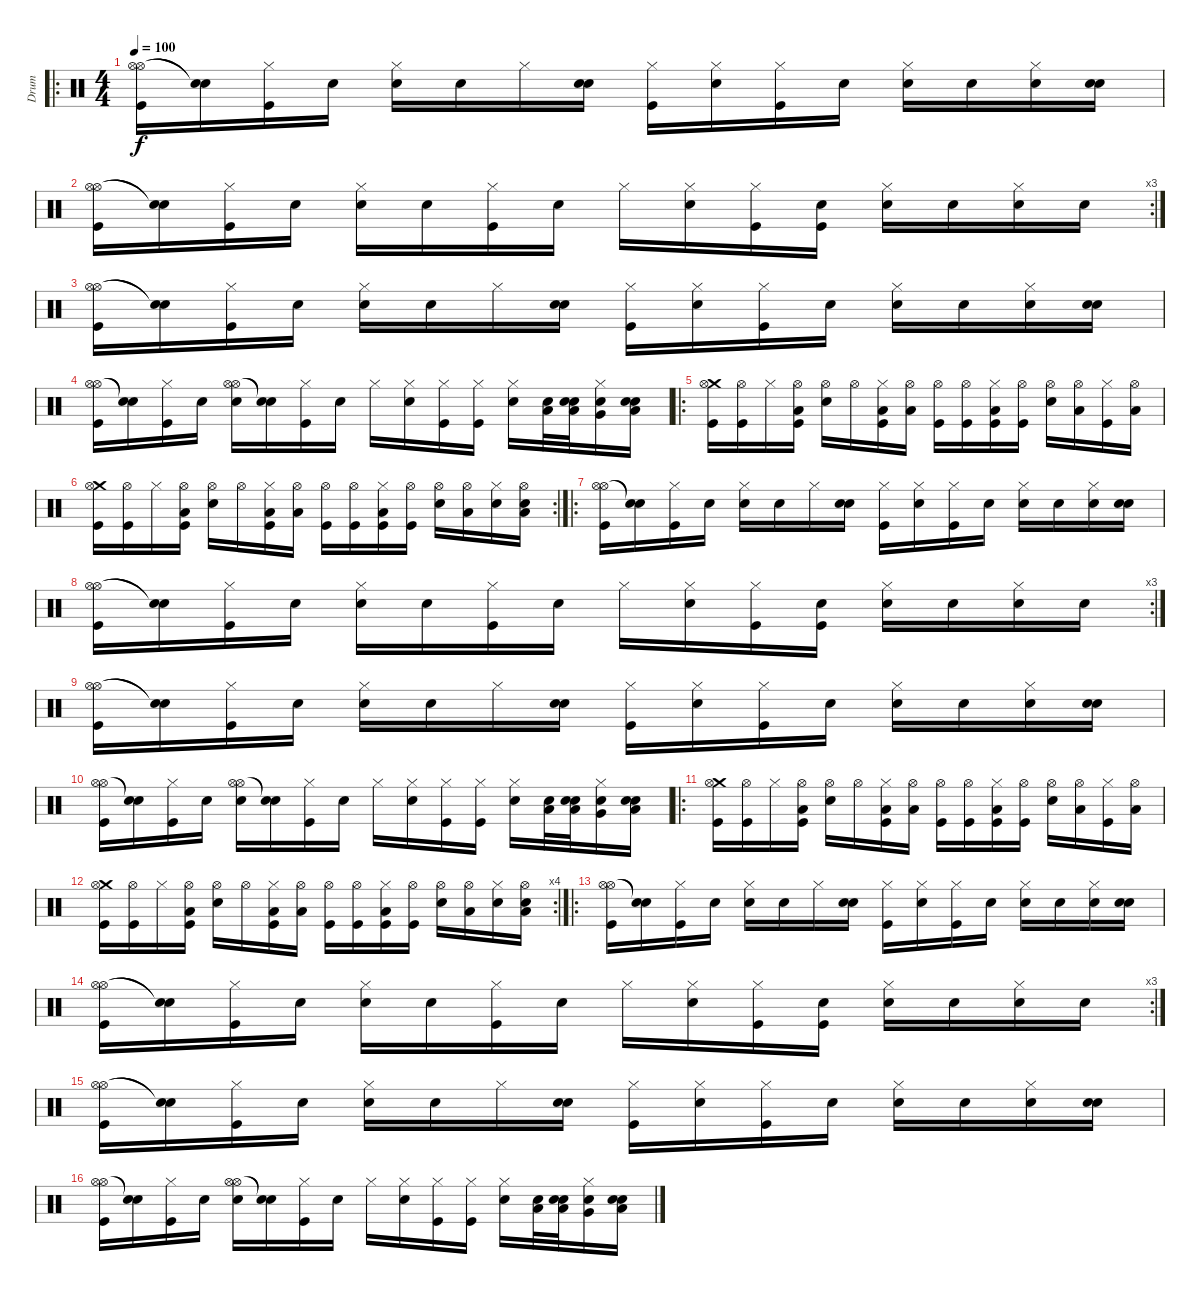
\track ("Drum" "Drum") {instrument percussion}
\staff {score}
\articulation defaults
\ro
\ts (4 4)
\tempo 100
\clef neutral
\ks c
("Hi-Hat (open)" "Hi-Hat (open)" "Kick (hit)").16{dy f} ("Snare (hit)"{t} "Snare (hit)"{t}).16 ("Hi-Hat (closed)" "Kick (hit)").16 "Snare (hit)".16 ("Hi-Hat (closed)" "Electric Snare (hit)").16 "Snare (hit)".16 "Hi-Hat (closed)".16 ("Snare (hit)" "Electric Snare (hit)").16 ("Hi-Hat (closed)" "Kick (hit)").16 ("Hi-Hat (closed)" "Electric Snare (hit)").16 ("Hi-Hat (closed)" "Kick (hit)").16 "Snare (hit)".16 ("Hi-Hat (closed)" "Electric Snare (hit)").16 "Snare (hit)".16 ("Hi-Hat (closed)" "Electric Snare (hit)").16 ("Snare (hit)" "Electric Snare (hit)").16 |
\rc 3
("Hi-Hat (open)" "Hi-Hat (open)" "Kick (hit)").16 ("Snare (hit)"{t} "Snare (hit)"{t}).16 ("Hi-Hat (closed)" "Kick (hit)").16 "Snare (hit)".16 ("Hi-Hat (closed)" "Electric Snare (hit)").16 "Snare (hit)".16 ("Hi-Hat (closed)" "Kick (hit)").16 "Snare (hit)".16 "Hi-Hat (closed)".16 ("Hi-Hat (closed)" "Electric Snare (hit)").16 ("Hi-Hat (closed)" "Kick (hit)").16 ("Snare (hit)" "Kick (hit)").16 ("Hi-Hat (closed)" "Electric Snare (hit)").16 "Snare (hit)".16 ("Hi-Hat (closed)" "Electric Snare (hit)").16 "Snare (hit)".16 |
("Hi-Hat (open)" "Hi-Hat (open)" "Kick (hit)").16 ("Snare (hit)"{t} "Snare (hit)"{t}).16 ("Hi-Hat (closed)" "Kick (hit)").16 "Snare (hit)".16 ("Hi-Hat (closed)" "Electric Snare (hit)").16 "Snare (hit)".16 "Hi-Hat (closed)".16 ("Snare (hit)" "Electric Snare (hit)").16 ("Hi-Hat (closed)" "Kick (hit)").16 ("Hi-Hat (closed)" "Electric Snare (hit)").16 ("Hi-Hat (closed)" "Kick (hit)").16 "Snare (hit)".16 ("Hi-Hat (closed)" "Electric Snare (hit)").16 "Snare (hit)".16 ("Hi-Hat (closed)" "Electric Snare (hit)").16 ("Snare (hit)" "Electric Snare (hit)").16 |
("Hi-Hat (open)" "Hi-Hat (open)" "Kick (hit)").16 ("Snare (hit)"{t} "Snare (hit)"{t}).16 ("Hi-Hat (closed)" "Kick (hit)").16 "Snare (hit)".16 ("Hi-Hat (open)" "Hi-Hat (open)" "Electric Snare (hit)").16 ("Snare (hit)"{t} "Snare (hit)"{t}).16 ("Hi-Hat (closed)" "Kick (hit)").16 "Snare (hit)".16 "Hi-Hat (closed)".16 ("Hi-Hat (closed)" "Electric Snare (hit)").16 ("Hi-Hat (closed)" "Kick (hit)").16 ("Hi-Hat (closed)" "Kick (hit)").16 ("Hi-Hat (closed)" "Electric Snare (hit)").16 ("Electric Snare (hit)" "Low Tom (hit)").32 ("Snare (hit)" "Electric Snare (hit)" "Low Tom (hit)").32 ("Hi-Hat (closed)" "Electric Snare (hit)" "Very Low Tom (hit)").16 ("Snare (hit)" "Electric Snare (hit)" "Low Floor Tom (hit)").16 |
\ro
("Crash medium (hit)" "Hi-Hat (open)" "Kick (hit)").16 ("Hi-Hat (open)" "Kick (hit)").16 "Hi-Hat (closed)".16 ("Hi-Hat (open)" "Kick (hit)" "Low Tom (hit)").16 ("Hi-Hat (open)" "Electric Snare (hit)").16 "Hi-Hat (open)".16 ("Hi-Hat (closed)" "Kick (hit)" "Low Floor Tom (hit)").16 ("Hi-Hat (open)" "Low Floor Tom (hit)").16 ("Hi-Hat (open)" "Kick (hit)").16 ("Hi-Hat (open)" "Kick (hit)").16 ("Hi-Hat (closed)" "Kick (hit)" "Low Tom (hit)").16 ("Hi-Hat (open)" "Kick (hit)").16 ("Hi-Hat (open)" "Electric Snare (hit)").16 ("Hi-Hat (open)" "Low Floor Tom (hit)").16 ("Hi-Hat (closed)" "Kick (hit)").16 ("Hi-Hat (open)" "Low Floor Tom (hit)").16 |
\rc 2
("Crash medium (hit)" "Hi-Hat (open)" "Kick (hit)").16 ("Hi-Hat (open)" "Kick (hit)").16 "Hi-Hat (closed)".16 ("Hi-Hat (open)" "Kick (hit)" "Low Tom (hit)").16 ("Hi-Hat (open)" "Electric Snare (hit)").16 "Hi-Hat (open)".16 ("Hi-Hat (closed)" "Kick (hit)" "Low Floor Tom (hit)").16 ("Hi-Hat (open)" "Low Floor Tom (hit)").16 ("Hi-Hat (open)" "Kick (hit)").16 ("Hi-Hat (open)" "Kick (hit)").16 ("Hi-Hat (closed)" "Kick (hit)" "Low Tom (hit)").16 ("Hi-Hat (open)" "Kick (hit)").16 ("Hi-Hat (open)" "Electric Snare (hit)").16 ("Hi-Hat (open)" "Low Floor Tom (hit)").16 ("Hi-Hat (closed)" "Electric Snare (hit)").16 ("Hi-Hat (open)" "Electric Snare (hit)" "Low Floor Tom (hit)").16 |
\ro
("Hi-Hat (open)" "Hi-Hat (open)" "Kick (hit)").16 ("Snare (hit)"{t} "Snare (hit)"{t}).16 ("Hi-Hat (closed)" "Kick (hit)").16 "Snare (hit)".16 ("Hi-Hat (closed)" "Electric Snare (hit)").16 "Snare (hit)".16 "Hi-Hat (closed)".16 ("Snare (hit)" "Electric Snare (hit)").16 ("Hi-Hat (closed)" "Kick (hit)").16 ("Hi-Hat (closed)" "Electric Snare (hit)").16 ("Hi-Hat (closed)" "Kick (hit)").16 "Snare (hit)".16 ("Hi-Hat (closed)" "Electric Snare (hit)").16 "Snare (hit)".16 ("Hi-Hat (closed)" "Electric Snare (hit)").16 ("Snare (hit)" "Electric Snare (hit)").16 |
\rc 3
("Hi-Hat (open)" "Hi-Hat (open)" "Kick (hit)").16 ("Snare (hit)"{t} "Snare (hit)"{t}).16 ("Hi-Hat (closed)" "Kick (hit)").16 "Snare (hit)".16 ("Hi-Hat (closed)" "Electric Snare (hit)").16 "Snare (hit)".16 ("Hi-Hat (closed)" "Kick (hit)").16 "Snare (hit)".16 "Hi-Hat (closed)".16 ("Hi-Hat (closed)" "Electric Snare (hit)").16 ("Hi-Hat (closed)" "Kick (hit)").16 ("Snare (hit)" "Kick (hit)").16 ("Hi-Hat (closed)" "Electric Snare (hit)").16 "Snare (hit)".16 ("Hi-Hat (closed)" "Electric Snare (hit)").16 "Snare (hit)".16 |
("Hi-Hat (open)" "Hi-Hat (open)" "Kick (hit)").16 ("Snare (hit)"{t} "Snare (hit)"{t}).16 ("Hi-Hat (closed)" "Kick (hit)").16 "Snare (hit)".16 ("Hi-Hat (closed)" "Electric Snare (hit)").16 "Snare (hit)".16 "Hi-Hat (closed)".16 ("Snare (hit)" "Electric Snare (hit)").16 ("Hi-Hat (closed)" "Kick (hit)").16 ("Hi-Hat (closed)" "Electric Snare (hit)").16 ("Hi-Hat (closed)" "Kick (hit)").16 "Snare (hit)".16 ("Hi-Hat (closed)" "Electric Snare (hit)").16 "Snare (hit)".16 ("Hi-Hat (closed)" "Electric Snare (hit)").16 ("Snare (hit)" "Electric Snare (hit)").16 |
("Hi-Hat (open)" "Hi-Hat (open)" "Kick (hit)").16 ("Snare (hit)"{t} "Snare (hit)"{t}).16 ("Hi-Hat (closed)" "Kick (hit)").16 "Snare (hit)".16 ("Hi-Hat (open)" "Hi-Hat (open)" "Electric Snare (hit)").16 ("Snare (hit)"{t} "Snare (hit)"{t}).16 ("Hi-Hat (closed)" "Kick (hit)").16 "Snare (hit)".16 "Hi-Hat (closed)".16 ("Hi-Hat (closed)" "Electric Snare (hit)").16 ("Hi-Hat (closed)" "Kick (hit)").16 ("Hi-Hat (closed)" "Kick (hit)").16 ("Hi-Hat (closed)" "Electric Snare (hit)").16 ("Electric Snare (hit)" "Low Tom (hit)").32 ("Snare (hit)" "Electric Snare (hit)" "Low Tom (hit)").32 ("Hi-Hat (closed)" "Electric Snare (hit)" "Very Low Tom (hit)").16 ("Snare (hit)" "Electric Snare (hit)" "Low Floor Tom (hit)").16 |
\ro
("Crash medium (hit)" "Hi-Hat (open)" "Kick (hit)").16 ("Hi-Hat (open)" "Kick (hit)").16 "Hi-Hat (closed)".16 ("Hi-Hat (open)" "Kick (hit)" "Low Tom (hit)").16 ("Hi-Hat (open)" "Electric Snare (hit)").16 "Hi-Hat (open)".16 ("Hi-Hat (closed)" "Kick (hit)" "Low Floor Tom (hit)").16 ("Hi-Hat (open)" "Low Floor Tom (hit)").16 ("Hi-Hat (open)" "Kick (hit)").16 ("Hi-Hat (open)" "Kick (hit)").16 ("Hi-Hat (closed)" "Kick (hit)" "Low Tom (hit)").16 ("Hi-Hat (open)" "Kick (hit)").16 ("Hi-Hat (open)" "Electric Snare (hit)").16 ("Hi-Hat (open)" "Low Floor Tom (hit)").16 ("Hi-Hat (closed)" "Kick (hit)").16 ("Hi-Hat (open)" "Low Floor Tom (hit)").16 |
\rc 4
("Crash medium (hit)" "Hi-Hat (open)" "Kick (hit)").16 ("Hi-Hat (open)" "Kick (hit)").16 "Hi-Hat (closed)".16 ("Hi-Hat (open)" "Kick (hit)" "Low Tom (hit)").16 ("Hi-Hat (open)" "Electric Snare (hit)").16 "Hi-Hat (open)".16 ("Hi-Hat (closed)" "Kick (hit)" "Low Floor Tom (hit)").16 ("Hi-Hat (open)" "Low Floor Tom (hit)").16 ("Hi-Hat (open)" "Kick (hit)").16 ("Hi-Hat (open)" "Kick (hit)").16 ("Hi-Hat (closed)" "Kick (hit)" "Low Tom (hit)").16 ("Hi-Hat (open)" "Kick (hit)").16 ("Hi-Hat (open)" "Electric Snare (hit)").16 ("Hi-Hat (open)" "Low Floor Tom (hit)").16 ("Hi-Hat (closed)" "Electric Snare (hit)").16 ("Hi-Hat (open)" "Electric Snare (hit)" "Low Floor Tom (hit)").16 |
\ro
("Hi-Hat (open)" "Hi-Hat (open)" "Kick (hit)").16 ("Snare (hit)"{t} "Snare (hit)"{t}).16 ("Hi-Hat (closed)" "Kick (hit)").16 "Snare (hit)".16 ("Hi-Hat (closed)" "Electric Snare (hit)").16 "Snare (hit)".16 "Hi-Hat (closed)".16 ("Snare (hit)" "Electric Snare (hit)").16 ("Hi-Hat (closed)" "Kick (hit)").16 ("Hi-Hat (closed)" "Electric Snare (hit)").16 ("Hi-Hat (closed)" "Kick (hit)").16 "Snare (hit)".16 ("Hi-Hat (closed)" "Electric Snare (hit)").16 "Snare (hit)".16 ("Hi-Hat (closed)" "Electric Snare (hit)").16 ("Snare (hit)" "Electric Snare (hit)").16 |
\rc 3
("Hi-Hat (open)" "Hi-Hat (open)" "Kick (hit)").16 ("Snare (hit)"{t} "Snare (hit)"{t}).16 ("Hi-Hat (closed)" "Kick (hit)").16 "Snare (hit)".16 ("Hi-Hat (closed)" "Electric Snare (hit)").16 "Snare (hit)".16 ("Hi-Hat (closed)" "Kick (hit)").16 "Snare (hit)".16 "Hi-Hat (closed)".16 ("Hi-Hat (closed)" "Electric Snare (hit)").16 ("Hi-Hat (closed)" "Kick (hit)").16 ("Snare (hit)" "Kick (hit)").16 ("Hi-Hat (closed)" "Electric Snare (hit)").16 "Snare (hit)".16 ("Hi-Hat (closed)" "Electric Snare (hit)").16 "Snare (hit)".16 |
("Hi-Hat (open)" "Hi-Hat (open)" "Kick (hit)").16 ("Snare (hit)"{t} "Snare (hit)"{t}).16 ("Hi-Hat (closed)" "Kick (hit)").16 "Snare (hit)".16 ("Hi-Hat (closed)" "Electric Snare (hit)").16 "Snare (hit)".16 "Hi-Hat (closed)".16 ("Snare (hit)" "Electric Snare (hit)").16 ("Hi-Hat (closed)" "Kick (hit)").16 ("Hi-Hat (closed)" "Electric Snare (hit)").16 ("Hi-Hat (closed)" "Kick (hit)").16 "Snare (hit)".16 ("Hi-Hat (closed)" "Electric Snare (hit)").16 "Snare (hit)".16 ("Hi-Hat (closed)" "Electric Snare (hit)").16 ("Snare (hit)" "Electric Snare (hit)").16 |
("Hi-Hat (open)" "Hi-Hat (open)" "Kick (hit)").16 ("Snare (hit)"{t} "Snare (hit)"{t}).16 ("Hi-Hat (closed)" "Kick (hit)").16 "Snare (hit)".16 ("Hi-Hat (open)" "Hi-Hat (open)" "Electric Snare (hit)").16 ("Snare (hit)"{t} "Snare (hit)"{t}).16 ("Hi-Hat (closed)" "Kick (hit)").16 "Snare (hit)".16 "Hi-Hat (closed)".16 ("Hi-Hat (closed)" "Electric Snare (hit)").16 ("Hi-Hat (closed)" "Kick (hit)").16 ("Hi-Hat (closed)" "Kick (hit)").16 ("Hi-Hat (closed)" "Electric Snare (hit)").16 ("Electric Snare (hit)" "Low Tom (hit)").32 ("Snare (hit)" "Electric Snare (hit)" "Low Tom (hit)").32 ("Hi-Hat (closed)" "Electric Snare (hit)" "Very Low Tom (hit)").16 ("Snare (hit)" "Electric Snare (hit)" "Low Floor Tom (hit)").16
